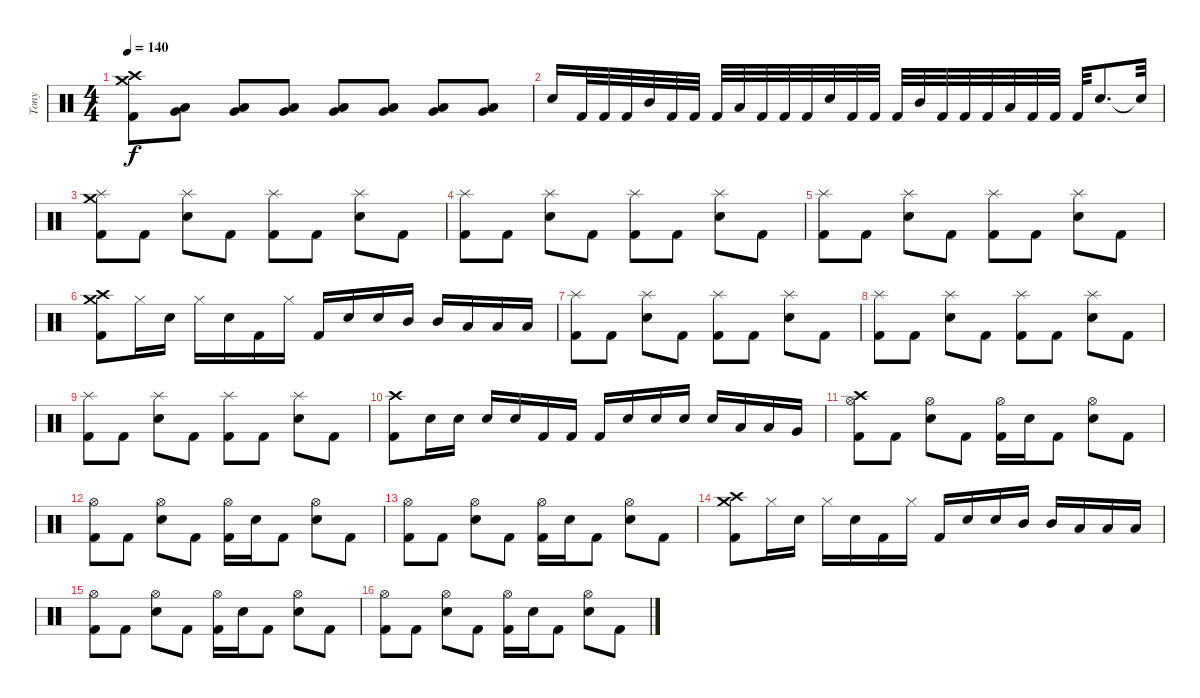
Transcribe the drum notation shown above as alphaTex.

\track ("Tony" "Tony") {instrument percussion}
\staff {score}
\articulation defaults
\ts (4 4)
\tempo 140
\clef neutral
\ks c
("Crash high (hit)" "Crash medium (hit)" "Kick (hit) 2").8{dy f} ("Low Tom (hit)" "Very Low Tom (hit)").8 ("Low Tom (hit)" "Very Low Tom (hit)").8 ("Low Tom (hit)" "Very Low Tom (hit)").8 ("Low Tom (hit)" "Very Low Tom (hit)").8 ("Low Tom (hit)" "Very Low Tom (hit)").8 ("Low Tom (hit)" "Very Low Tom (hit)").8 ("Low Tom (hit)" "Very Low Tom (hit)").8 |
"Electric Snare (hit)".16 "Kick (hit) 2".32 "Kick (hit) 2".32 "Kick (hit) 2".32 "Mid Tom (hit)".32 "Kick (hit) 2".32 "Kick (hit) 2".32 "Kick (hit) 2".32 "Low Tom (hit)".32 "Kick (hit) 2".32 "Kick (hit) 2".32 "Kick (hit) 2".32 "Electric Snare (hit)".32 "Kick (hit) 2".32 "Kick (hit) 2".32 "Kick (hit) 2".32 "Mid Tom (hit)".32 "Kick (hit) 2".32 "Kick (hit) 2".32 "Kick (hit) 2".32 "Low Tom (hit)".32 "Kick (hit) 2".32 "Kick (hit) 2".32 "Kick (hit) 2".32 "Electric Snare (hit)".8{d} "Snare (hit)"{t}.32 |
("Kick (hit) 2" "Splash (hit)" "Crash medium (hit)").8 "Kick (hit) 2".8 ("Electric Snare (hit)" "Splash (hit)").8 "Kick (hit) 2".8 ("Kick (hit) 2" "Splash (hit)").8 "Kick (hit) 2".8 ("Electric Snare (hit)" "Splash (hit)").8 "Kick (hit) 2".8 |
("Kick (hit) 2" "Splash (hit)").8 "Kick (hit) 2".8 ("Electric Snare (hit)" "Splash (hit)").8 "Kick (hit) 2".8 ("Kick (hit) 2" "Splash (hit)").8 "Kick (hit) 2".8 ("Electric Snare (hit)" "Splash (hit)").8 "Kick (hit) 2".8 |
("Kick (hit) 2" "Splash (hit)").8 "Kick (hit) 2".8 ("Electric Snare (hit)" "Splash (hit)").8 "Kick (hit) 2".8 ("Kick (hit) 2" "Splash (hit)").8 "Kick (hit) 2".8 ("Electric Snare (hit)" "Splash (hit)").8 "Kick (hit) 2".8 |
("Crash high (hit)" "Crash medium (hit)" "Kick (hit) 2").8 "Hi-Hat (closed)".16 "Electric Snare (hit)".16 "Hi-Hat (closed)".16 "Electric Snare (hit)".16 "Kick (hit) 2".16 "Hi-Hat (closed)".16 "Kick (hit) 2".16 "Electric Snare (hit)".16 "Electric Snare (hit)".16 "Mid Tom (hit)".16 "Mid Tom (hit)".16 "Low Tom (hit)".16 "Low Tom (hit)".16 "Low Tom (hit)".16 |
("Kick (hit) 2" "Splash (hit)").8 "Kick (hit) 2".8 ("Electric Snare (hit)" "Splash (hit)").8 "Kick (hit) 2".8 ("Kick (hit) 2" "Splash (hit)").8 "Kick (hit) 2".8 ("Electric Snare (hit)" "Splash (hit)").8 "Kick (hit) 2".8 |
("Kick (hit) 2" "Splash (hit)").8 "Kick (hit) 2".8 ("Electric Snare (hit)" "Splash (hit)").8 "Kick (hit) 2".8 ("Kick (hit) 2" "Splash (hit)").8 "Kick (hit) 2".8 ("Electric Snare (hit)" "Splash (hit)").8 "Kick (hit) 2".8 |
("Kick (hit) 2" "Splash (hit)").8 "Kick (hit) 2".8 ("Electric Snare (hit)" "Splash (hit)").8 "Kick (hit) 2".8 ("Kick (hit) 2" "Splash (hit)").8 "Kick (hit) 2".8 ("Electric Snare (hit)" "Splash (hit)").8 "Kick (hit) 2".8 |
("Crash high (hit)" "Kick (hit) 2").8 "Electric Snare (hit)".16 "Electric Snare (hit)".16 "Electric Snare (hit)".16 "Electric Snare (hit)".16 "Kick (hit) 2".16 "Kick (hit) 2".16 "Kick (hit) 2".16 "Electric Snare (hit)".16 "Electric Snare (hit)".16 "Electric Snare (hit)".16 "Electric Snare (hit)".16 "Low Tom (hit)".16 "Low Tom (hit)".16 "Very Low Tom (hit)".16 |
("Kick (hit) 2" "Hi-Hat (open)" "Crash high (hit)").8 "Kick (hit) 2".8 ("Electric Snare (hit)" "Hi-Hat (open)").8 "Kick (hit) 2".8 ("Kick (hit) 2" "Hi-Hat (open)").16 "Electric Snare (hit)".16 "Kick (hit) 2".8 ("Electric Snare (hit)" "Hi-Hat (open)").8 "Kick (hit) 2".8 |
("Kick (hit) 2" "Hi-Hat (open)").8 "Kick (hit) 2".8 ("Electric Snare (hit)" "Hi-Hat (open)").8 "Kick (hit) 2".8 ("Kick (hit) 2" "Hi-Hat (open)").16 "Electric Snare (hit)".16 "Kick (hit) 2".8 ("Electric Snare (hit)" "Hi-Hat (open)").8 "Kick (hit) 2".8 |
("Kick (hit) 2" "Hi-Hat (open)").8 "Kick (hit) 2".8 ("Electric Snare (hit)" "Hi-Hat (open)").8 "Kick (hit) 2".8 ("Kick (hit) 2" "Hi-Hat (open)").16 "Electric Snare (hit)".16 "Kick (hit) 2".8 ("Electric Snare (hit)" "Hi-Hat (open)").8 "Kick (hit) 2".8 |
("Crash high (hit)" "Crash medium (hit)" "Kick (hit) 2").8 "Hi-Hat (closed)".16 "Electric Snare (hit)".16 "Hi-Hat (closed)".16 "Electric Snare (hit)".16 "Kick (hit) 2".16 "Hi-Hat (closed)".16 "Kick (hit) 2".16 "Electric Snare (hit)".16 "Electric Snare (hit)".16 "Mid Tom (hit)".16 "Mid Tom (hit)".16 "Low Tom (hit)".16 "Low Tom (hit)".16 "Low Tom (hit)".16 |
("Kick (hit) 2" "Hi-Hat (open)").8 "Kick (hit) 2".8 ("Electric Snare (hit)" "Hi-Hat (open)").8 "Kick (hit) 2".8 ("Kick (hit) 2" "Hi-Hat (open)").16 "Electric Snare (hit)".16 "Kick (hit) 2".8 ("Electric Snare (hit)" "Hi-Hat (open)").8 "Kick (hit) 2".8 |
("Kick (hit) 2" "Hi-Hat (open)").8 "Kick (hit) 2".8 ("Electric Snare (hit)" "Hi-Hat (open)").8 "Kick (hit) 2".8 ("Kick (hit) 2" "Hi-Hat (open)").16 "Electric Snare (hit)".16 "Kick (hit) 2".8 ("Electric Snare (hit)" "Hi-Hat (open)").8 "Kick (hit) 2".8
